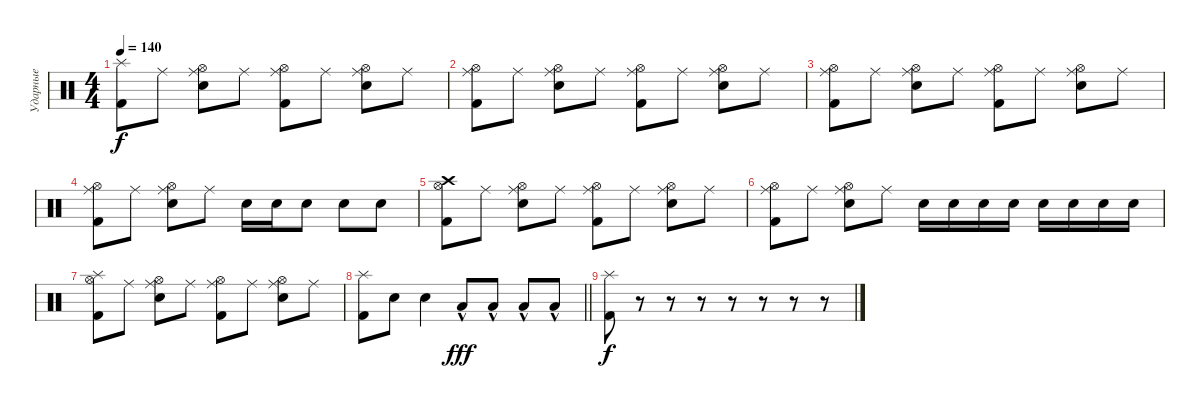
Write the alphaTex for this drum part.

\track ("Ударные" "Ударные") {instrument percussion}
\staff {score}
\articulation defaults
\ts (4 4)
\tempo 140
\clef neutral
\ks c
("Splash (hit)" "Kick (hit) 2").8{dy f} "Ride (middle)".8 ("Ride (middle)" "Hi-Hat (open)" "Snare (hit) 2").8 "Ride (middle)".8 ("Ride (middle)" "Hi-Hat (open)" "Kick (hit) 2").8 "Ride (middle)".8 ("Ride (middle)" "Hi-Hat (open)" "Snare (hit) 2").8 "Ride (middle)".8 |
("Ride (middle)" "Hi-Hat (open)" "Kick (hit) 2").8 "Ride (middle)".8 ("Ride (middle)" "Hi-Hat (open)" "Snare (hit) 2").8 "Ride (middle)".8 ("Ride (middle)" "Hi-Hat (open)" "Kick (hit) 2").8 "Ride (middle)".8 ("Ride (middle)" "Hi-Hat (open)" "Snare (hit) 2").8 "Ride (middle)".8 |
("Ride (middle)" "Hi-Hat (open)" "Kick (hit) 2").8 "Ride (middle)".8 ("Ride (middle)" "Hi-Hat (open)" "Snare (hit) 2").8 "Ride (middle)".8 ("Ride (middle)" "Hi-Hat (open)" "Kick (hit) 2").8 "Ride (middle)".8 ("Ride (middle)" "Hi-Hat (open)" "Snare (hit) 2").8 "Ride (middle)".8 |
("Ride (middle)" "Hi-Hat (open)" "Kick (hit) 2").8 "Ride (middle)".8 ("Ride (middle)" "Hi-Hat (open)" "Snare (hit) 2").8 "Ride (middle)".8 "Snare (hit) 2".16 "Snare (hit) 2".16 "Snare (hit) 2".8 "Snare (hit) 2".8 "Snare (hit) 2".8 |
("Crash high (hit)" "Hi-Hat (open)" "Kick (hit) 2").8 "Ride (middle)".8 ("Ride (middle)" "Hi-Hat (open)" "Snare (hit) 2").8 "Ride (middle)".8 ("Ride (middle)" "Hi-Hat (open)" "Kick (hit) 2").8 "Ride (middle)".8 ("Ride (middle)" "Hi-Hat (open)" "Snare (hit) 2").8 "Ride (middle)".8 |
("Ride (middle)" "Hi-Hat (open)" "Kick (hit) 2").8 "Ride (middle)".8 ("Ride (middle)" "Hi-Hat (open)" "Snare (hit) 2").8 "Ride (middle)".8 "Snare (hit) 2".16 "Snare (hit) 2".16 "Snare (hit) 2".16 "Snare (hit) 2".16 "Snare (hit) 2".16 "Snare (hit) 2".16 "Snare (hit) 2".16 "Snare (hit) 2".16 |
("Splash (hit)" "Hi-Hat (open)" "Kick (hit) 2").8 "Ride (middle)".8 ("Ride (middle)" "Hi-Hat (open)" "Snare (hit) 2").8 "Ride (middle)".8 ("Ride (middle)" "Hi-Hat (open)" "Kick (hit) 2").8 "Ride (middle)".8 ("Ride (middle)" "Hi-Hat (open)" "Snare (hit) 2").8 "Ride (middle)".8 |
\barLineRight lightlight
("Splash (hit)" "Kick (hit) 2").8 "Snare (hit) 2".8 "Snare (hit) 2".4 "Low Tom (hit)"{hac}.8{dy fff} "Low Tom (hit)"{hac}.8 "Low Tom (hit)"{hac}.8 "Low Tom (hit)"{hac}.8 |
("Splash (hit)" "Kick (hit) 2").8{dy f} r.8 r.8 r.8 r.8 r.8 r.8 r.8
